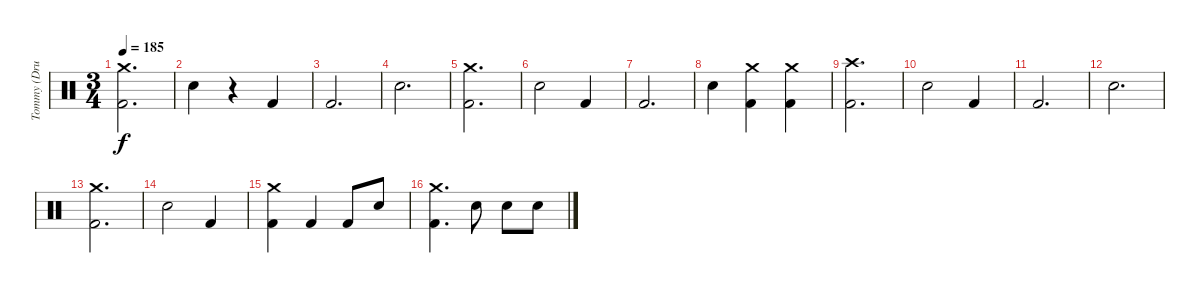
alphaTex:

\track ("Tommy (Drums)" "Tommy (Dru") {instrument percussion}
\staff {score}
\articulation defaults
\ts (3 4)
\tempo 185
\clef neutral
\ks c
("Crash medium (hit)" "Kick (hit) 2").2{d dy f} |
"Electric Snare (hit)".4 r.4 "Kick (hit) 2".4 |
"Kick (hit) 2".2{d} |
"Electric Snare (hit)".2{d} |
("Crash medium (hit)" "Kick (hit) 2").2{d} |
"Electric Snare (hit)".2 "Kick (hit) 2".4 |
"Kick (hit) 2".2{d} |
"Electric Snare (hit)".4 ("Crash medium (hit)" "Kick (hit) 2").4 ("Crash medium (hit)" "Kick (hit) 2").4 |
("Crash high (hit)" "Kick (hit) 2").2{d} |
"Electric Snare (hit)".2 "Kick (hit) 2".4 |
"Kick (hit) 2".2{d} |
"Electric Snare (hit)".2{d} |
("Crash medium (hit)" "Kick (hit) 2").2{d} |
"Electric Snare (hit)".2 "Kick (hit) 2".4 |
("Crash medium (hit)" "Kick (hit) 2").4 "Kick (hit) 2".4 "Kick (hit) 2".8 "Electric Snare (hit)".8 |
("Crash medium (hit)" "Kick (hit) 2").4{d} "Electric Snare (hit)".8 "Electric Snare (hit)".8 "Electric Snare (hit)".8
